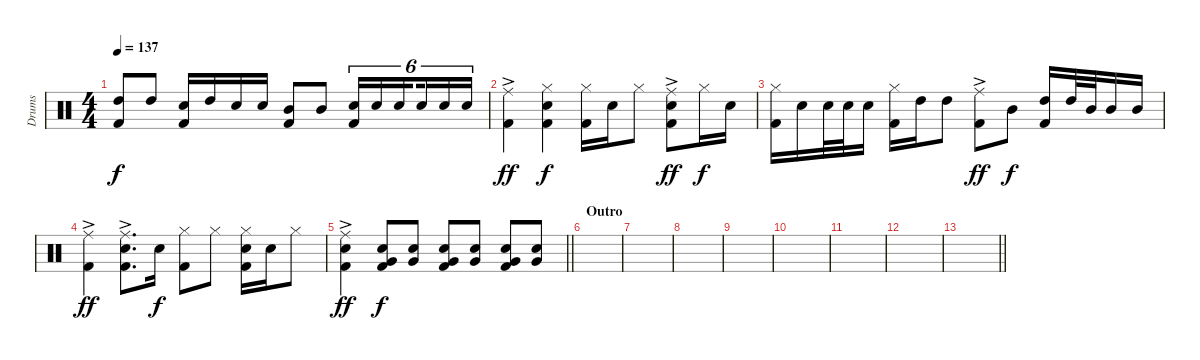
\track ("Drums" "Drums") {instrument percussion}
\staff {score}
\articulation defaults
\ts (4 4)
\tempo 137
\clef neutral
\ks c
("High Tom (hit)" "Kick (hit) 2").8{dy f} "High Tom (hit)".8 ("Electric Snare (hit)" "Kick (hit) 2").16 "High Tom (hit)".16 "Electric Snare (hit)".16 "Electric Snare (hit)".16 ("Mid Tom (hit)" "Kick (hit) 2").8 "Mid Tom (hit)".8 ("Electric Snare (hit)" "Kick (hit) 2").16{tu (6 4)} "Electric Snare (hit)".16{tu (6 4)} "Electric Snare (hit)".16{tu (6 4) beam splitsecondary} "Electric Snare (hit)".16{tu (6 4)} "Electric Snare (hit)".16{tu (6 4)} "Electric Snare (hit)".16{tu (6 4)} |
("Ride (middle)"{ac} "Kick (hit) 2").4{dy ff} ("Hi-Hat (closed)" "Electric Snare (hit)" "Kick (hit) 2").4{dy f} ("Hi-Hat (closed)" "Kick (hit) 2").16 "Electric Snare (hit)".16 "Hi-Hat (closed)".8 ("Ride (middle)"{ac} "Electric Snare (hit)" "Kick (hit) 2").8{dy ff} "Hi-Hat (closed)".16{dy f} "Electric Snare (hit)".16 |
("Hi-Hat (closed)" "Kick (hit) 2").16 "Electric Snare (hit)".16 "Electric Snare (hit)".32 "Electric Snare (hit)".32 "Electric Snare (hit)".16 ("Hi-Hat (closed)" "Kick (hit) 2").16 "High Tom (hit)".16 "High Tom (hit)".8 ("Ride (middle)"{ac} "Kick (hit) 2").8{dy ff} "Mid Tom (hit)".8{dy f} ("High Tom (hit)" "Kick (hit) 2").16 "High Tom (hit)".32 "Mid Tom (hit)".32 "Mid Tom (hit)".16 "Mid Tom (hit)".16 |
("Ride (middle)"{ac} "Kick (hit) 2").4{dy ff} ("Ride (middle)"{ac} "Electric Snare (hit)" "Kick (hit) 2").8{d} "Electric Snare (hit)".16{dy f} ("Hi-Hat (closed)" "Kick (hit) 2").8 "Hi-Hat (closed)".8 ("Hi-Hat (closed)" "Electric Snare (hit)" "Kick (hit) 2").16 "Electric Snare (hit)".16 "Hi-Hat (closed)".8 |
\barLineRight lightlight
("Ride (middle)"{ac} "Electric Snare (hit)" "Kick (hit) 2").4{dy ff} ("Electric Snare (hit)" "Very Low Tom (hit)" "Kick (hit) 2").8{dy f} ("Electric Snare (hit)" "Very Low Tom (hit)").8 ("Electric Snare (hit)" "Very Low Tom (hit)" "Kick (hit) 2").8 ("Electric Snare (hit)" "Very Low Tom (hit)").8 ("Electric Snare (hit)" "Very Low Tom (hit)" "Kick (hit) 2").8 ("Electric Snare (hit)" "Very Low Tom (hit)").8 |
\section ("" "Outro")
|
|
|
|
|
|
|
\barLineRight lightlight
